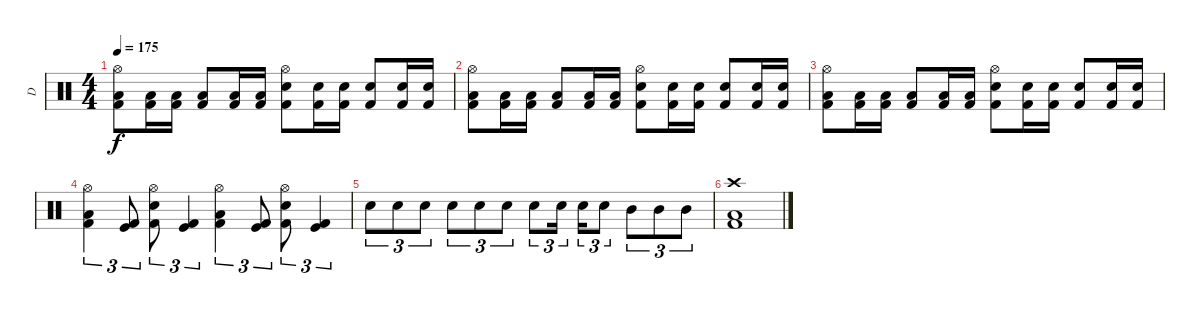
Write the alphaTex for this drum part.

\track ("D" "D") {instrument percussion}
\staff {score}
\articulation defaults
\ts (4 4)
\tempo 175
\clef neutral
\ks c
("Hi-Hat (open)" "Low Floor Tom (hit)" "Kick (hit) 2").8{dy f} ("Low Tom (hit)" "Kick (hit) 2").16 ("Low Tom (hit)" "Kick (hit) 2").16 ("Low Tom (hit)" "Kick (hit) 2").8 ("Low Tom (hit)" "Kick (hit) 2").16 ("Low Tom (hit)" "Kick (hit) 2").16 ("Hi-Hat (open)" "Snare (hit) 2" "Kick (hit) 2").8 ("Electric Snare (hit)" "Kick (hit) 2").16 ("Electric Snare (hit)" "Kick (hit) 2").16 ("Electric Snare (hit)" "Kick (hit) 2").8 ("Electric Snare (hit)" "Kick (hit) 2").16 ("Electric Snare (hit)" "Kick (hit) 2").16 |
("Hi-Hat (open)" "Low Floor Tom (hit)" "Kick (hit) 2").8 ("Low Tom (hit)" "Kick (hit) 2").16 ("Low Tom (hit)" "Kick (hit) 2").16 ("Low Tom (hit)" "Kick (hit) 2").8 ("Low Tom (hit)" "Kick (hit) 2").16 ("Low Tom (hit)" "Kick (hit) 2").16 ("Hi-Hat (open)" "Snare (hit) 2" "Kick (hit) 2").8 ("Electric Snare (hit)" "Kick (hit) 2").16 ("Electric Snare (hit)" "Kick (hit) 2").16 ("Electric Snare (hit)" "Kick (hit) 2").8 ("Electric Snare (hit)" "Kick (hit) 2").16 ("Electric Snare (hit)" "Kick (hit) 2").16 |
("Hi-Hat (open)" "Low Floor Tom (hit)" "Kick (hit) 2").8 ("Low Tom (hit)" "Kick (hit) 2").16 ("Low Tom (hit)" "Kick (hit) 2").16 ("Low Tom (hit)" "Kick (hit) 2").8 ("Low Tom (hit)" "Kick (hit) 2").16 ("Low Tom (hit)" "Kick (hit) 2").16 ("Hi-Hat (open)" "Snare (hit) 2" "Kick (hit) 2").8 ("Electric Snare (hit)" "Kick (hit) 2").16 ("Electric Snare (hit)" "Kick (hit) 2").16 ("Electric Snare (hit)" "Kick (hit) 2").8 ("Electric Snare (hit)" "Kick (hit) 2").16 ("Electric Snare (hit)" "Kick (hit) 2").16 |
("Hi-Hat (open)" "Low Floor Tom (hit)" "Kick (hit) 2").4{tu (3 2)} ("Kick (hit)" "Kick (hit) 2").8{tu (3 2)} ("Hi-Hat (open)" "Electric Snare (hit)" "Kick (hit) 2").8{tu (3 2)} ("Kick (hit)" "Kick (hit) 2").4{tu (3 2)} ("Hi-Hat (open)" "Low Floor Tom (hit)" "Kick (hit) 2").4{tu (3 2)} ("Kick (hit)" "Kick (hit) 2").8{tu (3 2)} ("Hi-Hat (open)" "Electric Snare (hit)" "Kick (hit) 2").8{tu (3 2)} ("Kick (hit)" "Kick (hit) 2").4{tu (3 2)} |
"Electric Snare (hit)".8{tu (3 2)} "Electric Snare (hit)".8{tu (3 2)} "Electric Snare (hit)".8{tu (3 2)} "Electric Snare (hit)".8{tu (3 2)} "Electric Snare (hit)".8{tu (3 2)} "Electric Snare (hit)".8{tu (3 2)} "Electric Snare (hit)".8{tu (3 2)} "Electric Snare (hit)".16{tu (3 2)} "Electric Snare (hit)".16{tu (3 2)} "Electric Snare (hit)".8{tu (3 2)} "Mid Tom (hit)".8{tu (3 2)} "Mid Tom (hit)".8{tu (3 2)} "Mid Tom (hit)".8{tu (3 2)} |
("Crash high (hit)" "Low Floor Tom (hit)" "Kick (hit) 2").1{volume 0}
